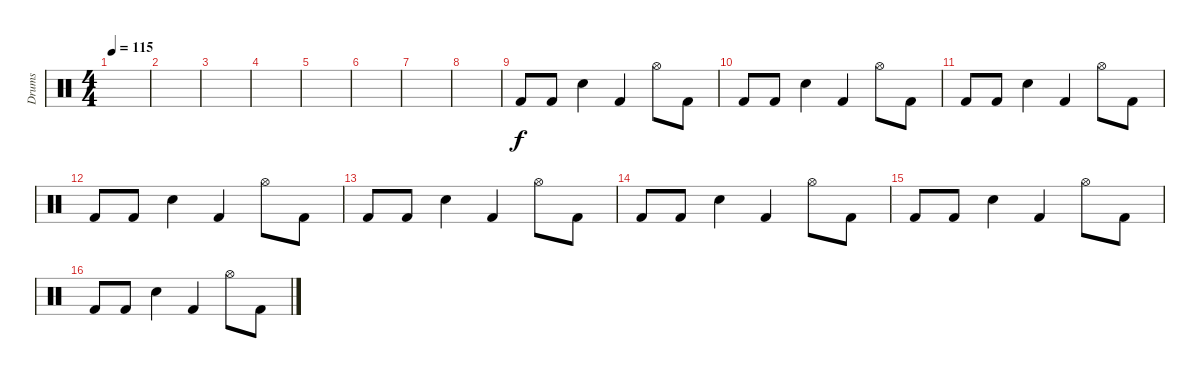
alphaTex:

\track ("Drums" "Drums") {instrument percussion}
\staff {score}
\articulation defaults
\ts (4 4)
\tempo 115
\clef neutral
\ks c
|
|
|
|
|
|
|
|
"Kick (hit) 2".8 "Kick (hit) 2".8 "Electric Snare (hit)".4 "Kick (hit) 2".4 "Hi-Hat (open)".8 "Kick (hit) 2".8 |
"Kick (hit) 2".8 "Kick (hit) 2".8 "Electric Snare (hit)".4 "Kick (hit) 2".4 "Hi-Hat (open)".8 "Kick (hit) 2".8 |
"Kick (hit) 2".8 "Kick (hit) 2".8 "Electric Snare (hit)".4 "Kick (hit) 2".4 "Hi-Hat (open)".8 "Kick (hit) 2".8 |
"Kick (hit) 2".8 "Kick (hit) 2".8 "Electric Snare (hit)".4 "Kick (hit) 2".4 "Hi-Hat (open)".8 "Kick (hit) 2".8 |
"Kick (hit) 2".8 "Kick (hit) 2".8 "Electric Snare (hit)".4 "Kick (hit) 2".4 "Hi-Hat (open)".8 "Kick (hit) 2".8 |
"Kick (hit) 2".8 "Kick (hit) 2".8 "Electric Snare (hit)".4 "Kick (hit) 2".4 "Hi-Hat (open)".8 "Kick (hit) 2".8 |
"Kick (hit) 2".8 "Kick (hit) 2".8 "Electric Snare (hit)".4 "Kick (hit) 2".4 "Hi-Hat (open)".8 "Kick (hit) 2".8 |
"Kick (hit) 2".8 "Kick (hit) 2".8 "Electric Snare (hit)".4 "Kick (hit) 2".4 "Hi-Hat (open)".8 "Kick (hit) 2".8
